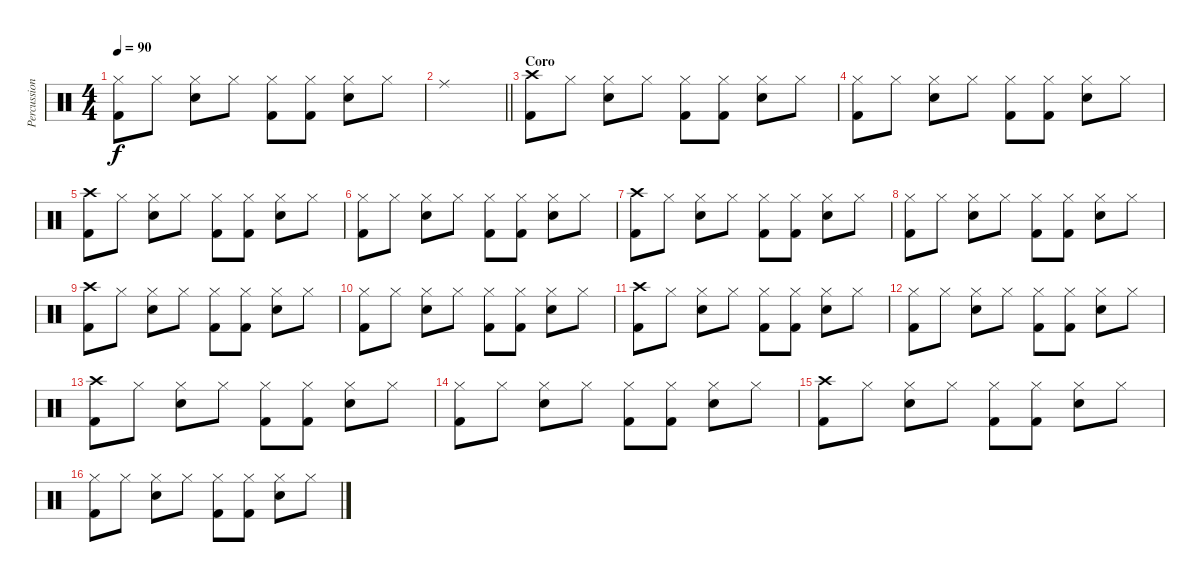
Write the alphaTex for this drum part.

\track ("Percussion" "Percussion") {instrument percussion}
\staff {score}
\articulation defaults
\ts (4 4)
\tempo 90
\clef neutral
\ks c
("Hi-Hat (closed)" "Kick (hit) 2").8{dy f} "Hi-Hat (closed)".8 ("Hi-Hat (closed)" "Snare (hit) 2").8 "Hi-Hat (closed)".8 ("Hi-Hat (closed)" "Kick (hit) 2").8 ("Hi-Hat (closed)" "Kick (hit) 2").8 ("Hi-Hat (closed)" "Snare (hit) 2").8 "Hi-Hat (closed)".8 |
\barLineRight lightlight "Ride (middle)".1
|
\section ("" "Coro")
("Crash high (hit)" "Kick (hit) 2").8 "Hi-Hat (closed)".8 ("Hi-Hat (closed)" "Snare (hit) 2").8 "Hi-Hat (closed)".8 ("Hi-Hat (closed)" "Kick (hit) 2").8 ("Hi-Hat (closed)" "Kick (hit) 2").8 ("Hi-Hat (closed)" "Snare (hit) 2").8 "Hi-Hat (closed)".8 |
("Hi-Hat (closed)" "Kick (hit) 2").8 "Hi-Hat (closed)".8 ("Hi-Hat (closed)" "Snare (hit) 2").8 "Hi-Hat (closed)".8 ("Hi-Hat (closed)" "Kick (hit) 2").8 ("Hi-Hat (closed)" "Kick (hit) 2").8 ("Hi-Hat (closed)" "Snare (hit) 2").8 "Hi-Hat (closed)".8 |
("Crash high (hit)" "Kick (hit) 2").8 "Hi-Hat (closed)".8 ("Hi-Hat (closed)" "Snare (hit) 2").8 "Hi-Hat (closed)".8 ("Hi-Hat (closed)" "Kick (hit) 2").8 ("Hi-Hat (closed)" "Kick (hit) 2").8 ("Hi-Hat (closed)" "Snare (hit) 2").8 "Hi-Hat (closed)".8 |
("Hi-Hat (closed)" "Kick (hit) 2").8 "Hi-Hat (closed)".8 ("Hi-Hat (closed)" "Snare (hit) 2").8 "Hi-Hat (closed)".8 ("Hi-Hat (closed)" "Kick (hit) 2").8 ("Hi-Hat (closed)" "Kick (hit) 2").8 ("Hi-Hat (closed)" "Snare (hit) 2").8 "Hi-Hat (closed)".8 |
("Crash high (hit)" "Kick (hit) 2").8 "Hi-Hat (closed)".8 ("Hi-Hat (closed)" "Snare (hit) 2").8 "Hi-Hat (closed)".8 ("Hi-Hat (closed)" "Kick (hit) 2").8 ("Hi-Hat (closed)" "Kick (hit) 2").8 ("Hi-Hat (closed)" "Snare (hit) 2").8 "Hi-Hat (closed)".8 |
("Hi-Hat (closed)" "Kick (hit) 2").8 "Hi-Hat (closed)".8 ("Hi-Hat (closed)" "Snare (hit) 2").8 "Hi-Hat (closed)".8 ("Hi-Hat (closed)" "Kick (hit) 2").8 ("Hi-Hat (closed)" "Kick (hit) 2").8 ("Hi-Hat (closed)" "Snare (hit) 2").8 "Hi-Hat (closed)".8 |
("Crash high (hit)" "Kick (hit) 2").8 "Hi-Hat (closed)".8 ("Hi-Hat (closed)" "Snare (hit) 2").8 "Hi-Hat (closed)".8 ("Hi-Hat (closed)" "Kick (hit) 2").8 ("Hi-Hat (closed)" "Kick (hit) 2").8 ("Hi-Hat (closed)" "Snare (hit) 2").8 "Hi-Hat (closed)".8 |
("Hi-Hat (closed)" "Kick (hit) 2").8 "Hi-Hat (closed)".8 ("Hi-Hat (closed)" "Snare (hit) 2").8 "Hi-Hat (closed)".8 ("Hi-Hat (closed)" "Kick (hit) 2").8 ("Hi-Hat (closed)" "Kick (hit) 2").8 ("Hi-Hat (closed)" "Snare (hit) 2").8 "Hi-Hat (closed)".8 |
("Crash high (hit)" "Kick (hit) 2").8 "Hi-Hat (closed)".8 ("Hi-Hat (closed)" "Snare (hit) 2").8 "Hi-Hat (closed)".8 ("Hi-Hat (closed)" "Kick (hit) 2").8 ("Hi-Hat (closed)" "Kick (hit) 2").8 ("Hi-Hat (closed)" "Snare (hit) 2").8 "Hi-Hat (closed)".8 |
("Hi-Hat (closed)" "Kick (hit) 2").8 "Hi-Hat (closed)".8 ("Hi-Hat (closed)" "Snare (hit) 2").8 "Hi-Hat (closed)".8 ("Hi-Hat (closed)" "Kick (hit) 2").8 ("Hi-Hat (closed)" "Kick (hit) 2").8 ("Hi-Hat (closed)" "Snare (hit) 2").8 "Hi-Hat (closed)".8 |
("Crash high (hit)" "Kick (hit) 2").8 "Hi-Hat (closed)".8 ("Hi-Hat (closed)" "Snare (hit) 2").8 "Hi-Hat (closed)".8 ("Hi-Hat (closed)" "Kick (hit) 2").8 ("Hi-Hat (closed)" "Kick (hit) 2").8 ("Hi-Hat (closed)" "Snare (hit) 2").8 "Hi-Hat (closed)".8 |
("Hi-Hat (closed)" "Kick (hit) 2").8 "Hi-Hat (closed)".8 ("Hi-Hat (closed)" "Snare (hit) 2").8 "Hi-Hat (closed)".8 ("Hi-Hat (closed)" "Kick (hit) 2").8 ("Hi-Hat (closed)" "Kick (hit) 2").8 ("Hi-Hat (closed)" "Snare (hit) 2").8 "Hi-Hat (closed)".8 |
("Crash high (hit)" "Kick (hit) 2").8 "Hi-Hat (closed)".8 ("Hi-Hat (closed)" "Snare (hit) 2").8 "Hi-Hat (closed)".8 ("Hi-Hat (closed)" "Kick (hit) 2").8 ("Hi-Hat (closed)" "Kick (hit) 2").8 ("Hi-Hat (closed)" "Snare (hit) 2").8 "Hi-Hat (closed)".8 |
("Hi-Hat (closed)" "Kick (hit) 2").8 "Hi-Hat (closed)".8 ("Hi-Hat (closed)" "Snare (hit) 2").8 "Hi-Hat (closed)".8 ("Hi-Hat (closed)" "Kick (hit) 2").8 ("Hi-Hat (closed)" "Kick (hit) 2").8 ("Hi-Hat (closed)" "Snare (hit) 2").8 "Hi-Hat (closed)".8
